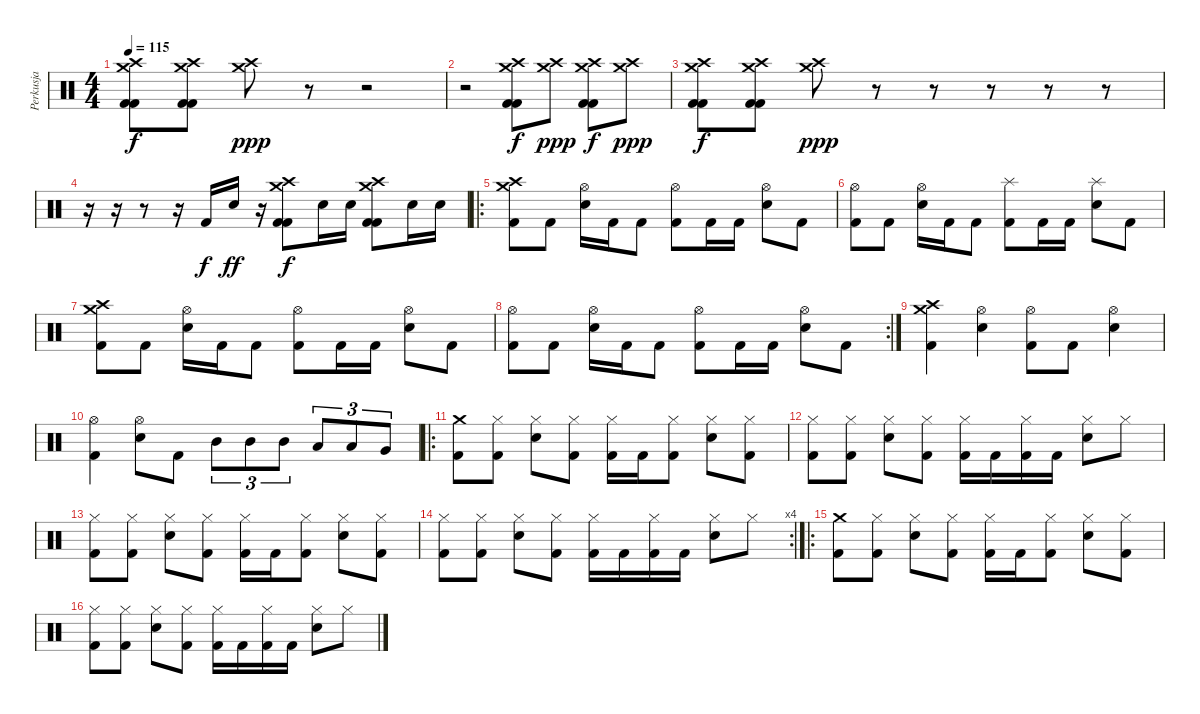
\track ("Perkusja" "Perkusja") {instrument percussion}
\staff {score}
\articulation defaults
\ts (4 4)
\tempo 115
\clef neutral
\ks c
("Crash high (hit)" "Crash medium (hit)" "Kick (hit) 2" "Kick (hit) 2").8{dy f} ("Crash high (hit)" "Crash medium (hit)" "Kick (hit) 2" "Kick (hit) 2").8 ("Crash high (hit)" "Crash medium (hit)").8{dy ppp} r.8 r.2 |
r.2 ("Crash high (hit)" "Crash medium (hit)" "Kick (hit) 2" "Kick (hit) 2").8{dy f} ("Crash high (hit)" "Crash medium (hit)").8{dy ppp} ("Crash high (hit)" "Crash medium (hit)" "Kick (hit) 2" "Kick (hit) 2").8{dy f} ("Crash high (hit)" "Crash medium (hit)").8{dy ppp} |
("Crash high (hit)" "Crash medium (hit)" "Kick (hit) 2" "Kick (hit) 2").8{dy f} ("Crash high (hit)" "Crash medium (hit)" "Kick (hit) 2" "Kick (hit) 2").8 ("Crash high (hit)" "Crash medium (hit)").8{dy ppp} r.8 r.8 r.8 r.8 r.8 |
r.16 r.16 r.8 r.16 "Kick (hit) 2".16{dy f} "Snare (hit) 2".16{dy ff} r.16 ("Crash high (hit)" "Crash medium (hit)" "Kick (hit) 2" "Kick (hit) 2").8{dy f} "Snare (hit) 2".16 "Snare (hit) 2".16 ("Crash high (hit)" "Crash medium (hit)" "Kick (hit) 2" "Kick (hit) 2").8 "Snare (hit) 2".16 "Snare (hit) 2".16 |
\ro
("Crash medium (hit)" "Crash high (hit)" "Kick (hit) 2").8 "Kick (hit) 2".8 ("Hi-Hat (open)" "Snare (hit) 2").16 "Kick (hit) 2".16 "Kick (hit) 2".8 ("Hi-Hat (open)" "Kick (hit) 2").8 "Kick (hit) 2".16 "Kick (hit) 2".16 ("Hi-Hat (open)" "Snare (hit) 2").8 "Kick (hit) 2".8 |
("Hi-Hat (open)" "Kick (hit) 2").8 "Kick (hit) 2".8 ("Hi-Hat (open)" "Snare (hit) 2").16 "Kick (hit) 2".16 "Kick (hit) 2".8 ("Splash (hit)" "Kick (hit) 2").8 "Kick (hit) 2".16 "Kick (hit) 2".16 ("Splash (hit)" "Snare (hit) 2").8 "Kick (hit) 2".8 |
("Crash medium (hit)" "Crash high (hit)" "Kick (hit) 2").8 "Kick (hit) 2".8 ("Hi-Hat (open)" "Snare (hit) 2").16 "Kick (hit) 2".16 "Kick (hit) 2".8 ("Hi-Hat (open)" "Kick (hit) 2").8 "Kick (hit) 2".16 "Kick (hit) 2".16 ("Hi-Hat (open)" "Snare (hit) 2").8 "Kick (hit) 2".8 |
\rc 2
("Hi-Hat (open)" "Kick (hit) 2").8 "Kick (hit) 2".8 ("Hi-Hat (open)" "Snare (hit) 2").16 "Kick (hit) 2".16 "Kick (hit) 2".8 ("Hi-Hat (open)" "Kick (hit) 2").8 "Kick (hit) 2".16 "Kick (hit) 2".16 ("Hi-Hat (open)" "Snare (hit) 2").8 "Kick (hit) 2".8 |
("Crash medium (hit)" "Crash high (hit)" "Kick (hit) 2").4 ("Hi-Hat (open)" "Snare (hit) 2").4 ("Hi-Hat (open)" "Kick (hit) 2").8 "Kick (hit) 2".8 ("Hi-Hat (open)" "Snare (hit) 2").4 |
("Hi-Hat (open)" "Kick (hit) 2").4 ("Hi-Hat (open)" "Snare (hit) 2").8 "Kick (hit) 2".8 "Mid Tom (hit)".8{tu (3 2)} "Mid Tom (hit)".8{tu (3 2)} "Mid Tom (hit)".8{tu (3 2)} "Low Tom (hit)".8{tu (3 2)} "Low Tom (hit)".8{tu (3 2)} "Very Low Tom (hit)".8{tu (3 2)} |
\ro
("Crash medium (hit)" "Kick (hit) 2").8 ("Hi-Hat (closed)" "Kick (hit) 2").8 ("Hi-Hat (closed)" "Snare (hit) 2").8 ("Hi-Hat (closed)" "Kick (hit) 2").8 ("Hi-Hat (closed)" "Kick (hit) 2").16 "Kick (hit) 2".16 ("Hi-Hat (closed)" "Kick (hit) 2").8 ("Hi-Hat (closed)" "Snare (hit) 2").8 ("Hi-Hat (closed)" "Kick (hit) 2").8 |
("Hi-Hat (closed)" "Kick (hit) 2").8 ("Hi-Hat (closed)" "Kick (hit) 2").8 ("Hi-Hat (closed)" "Snare (hit) 2").8 ("Hi-Hat (closed)" "Kick (hit) 2").8 ("Hi-Hat (closed)" "Kick (hit) 2").16 "Kick (hit) 2".16 ("Hi-Hat (closed)" "Kick (hit) 2").16 "Kick (hit) 2".16 ("Hi-Hat (closed)" "Snare (hit) 2").8 "Hi-Hat (closed)".8 |
("Hi-Hat (closed)" "Kick (hit) 2").8 ("Hi-Hat (closed)" "Kick (hit) 2").8 ("Hi-Hat (closed)" "Snare (hit) 2").8 ("Hi-Hat (closed)" "Kick (hit) 2").8 ("Hi-Hat (closed)" "Kick (hit) 2").16 "Kick (hit) 2".16 ("Hi-Hat (closed)" "Kick (hit) 2").8 ("Hi-Hat (closed)" "Snare (hit) 2").8 ("Hi-Hat (closed)" "Kick (hit) 2").8 |
\rc 4
("Hi-Hat (closed)" "Kick (hit) 2").8 ("Hi-Hat (closed)" "Kick (hit) 2").8 ("Hi-Hat (closed)" "Snare (hit) 2").8 ("Hi-Hat (closed)" "Kick (hit) 2").8 ("Hi-Hat (closed)" "Kick (hit) 2").16 "Kick (hit) 2".16 ("Hi-Hat (closed)" "Kick (hit) 2").16 "Kick (hit) 2".16 ("Hi-Hat (closed)" "Snare (hit) 2").8 "Hi-Hat (closed)".8 |
\ro
("Crash medium (hit)" "Kick (hit) 2").8 ("Hi-Hat (closed)" "Kick (hit) 2").8 ("Hi-Hat (closed)" "Snare (hit) 2").8 ("Hi-Hat (closed)" "Kick (hit) 2").8 ("Hi-Hat (closed)" "Kick (hit) 2").16 "Kick (hit) 2".16 ("Hi-Hat (closed)" "Kick (hit) 2").8 ("Hi-Hat (closed)" "Snare (hit) 2").8 ("Hi-Hat (closed)" "Kick (hit) 2").8 |
("Hi-Hat (closed)" "Kick (hit) 2").8 ("Hi-Hat (closed)" "Kick (hit) 2").8 ("Hi-Hat (closed)" "Snare (hit) 2").8 ("Hi-Hat (closed)" "Kick (hit) 2").8 ("Hi-Hat (closed)" "Kick (hit) 2").16 "Kick (hit) 2".16 ("Hi-Hat (closed)" "Kick (hit) 2").16 "Kick (hit) 2".16 ("Hi-Hat (closed)" "Snare (hit) 2").8 "Hi-Hat (closed)".8
